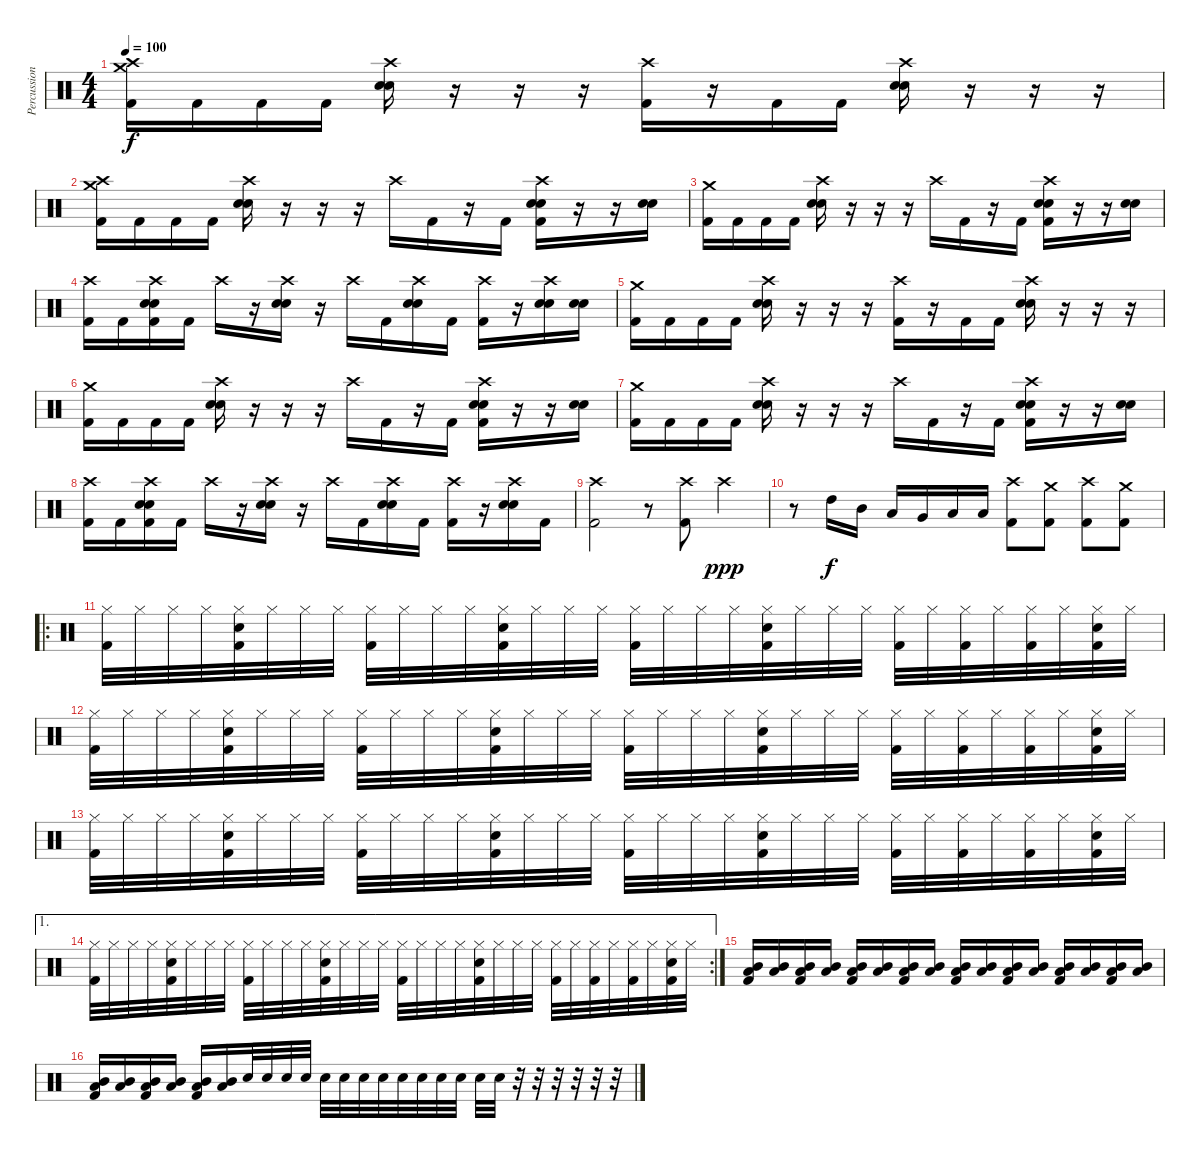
\track ("Percussion" "Percussion") {instrument percussion}
\staff {score}
\articulation defaults
\ts (4 4)
\tempo 100
\clef neutral
\ks c
("Crash medium (hit)" "Crash high (hit)" "Kick (hit) 2").16{dy f} "Kick (hit) 2".16 "Kick (hit) 2".16 "Kick (hit) 2".16 ("Crash high (hit)" "Electric Snare (hit)" "Snare (hit) 2").16 r.16 r.16 r.16 ("Crash high (hit)" "Kick (hit) 2").16 r.16 "Kick (hit) 2".16 "Kick (hit) 2".16 ("Crash high (hit)" "Electric Snare (hit)" "Snare (hit) 2").16 r.16 r.16 r.16 |
("Crash medium (hit)" "Crash high (hit)" "Kick (hit) 2").16 "Kick (hit) 2".16 "Kick (hit) 2".16 "Kick (hit) 2".16 ("Crash high (hit)" "Electric Snare (hit)" "Snare (hit) 2").16 r.16 r.16 r.16 "Crash high (hit)".16 "Kick (hit) 2".16 r.16 "Kick (hit) 2".16 ("Crash high (hit)" "Electric Snare (hit)" "Snare (hit) 2" "Kick (hit) 2").16 r.16 r.16 ("Electric Snare (hit)" "Snare (hit) 2").16 |
("Crash medium (hit)" "Kick (hit) 2").16 "Kick (hit) 2".16 "Kick (hit) 2".16 "Kick (hit) 2".16 ("Crash high (hit)" "Electric Snare (hit)" "Snare (hit) 2").16 r.16 r.16 r.16 "Crash high (hit)".16 "Kick (hit) 2".16 r.16 "Kick (hit) 2".16 ("Crash high (hit)" "Electric Snare (hit)" "Snare (hit) 2" "Kick (hit) 2").16 r.16 r.16 ("Electric Snare (hit)" "Snare (hit) 2").16 |
("Crash high (hit)" "Kick (hit) 2").16 "Kick (hit) 2".16 ("Crash high (hit)" "Electric Snare (hit)" "Snare (hit) 2" "Kick (hit) 2").16 "Kick (hit) 2".16 "Crash high (hit)".16 r.16 ("Crash high (hit)" "Electric Snare (hit)" "Snare (hit) 2").16 r.16 "Crash high (hit)".16 "Kick (hit) 2".16 ("Crash high (hit)" "Electric Snare (hit)" "Snare (hit) 2").16 "Kick (hit) 2".16 ("Crash high (hit)" "Kick (hit) 2").16 r.16 ("Crash high (hit)" "Electric Snare (hit)" "Snare (hit) 2").16 ("Electric Snare (hit)" "Snare (hit) 2").16 |
("Crash medium (hit)" "Kick (hit) 2").16 "Kick (hit) 2".16 "Kick (hit) 2".16 "Kick (hit) 2".16 ("Crash high (hit)" "Electric Snare (hit)" "Snare (hit) 2").16 r.16 r.16 r.16 ("Crash high (hit)" "Kick (hit) 2").16 r.16 "Kick (hit) 2".16 "Kick (hit) 2".16 ("Crash high (hit)" "Electric Snare (hit)" "Snare (hit) 2").16 r.16 r.16 r.16 |
("Crash medium (hit)" "Kick (hit) 2").16 "Kick (hit) 2".16 "Kick (hit) 2".16 "Kick (hit) 2".16 ("Crash high (hit)" "Electric Snare (hit)" "Snare (hit) 2").16 r.16 r.16 r.16 "Crash high (hit)".16 "Kick (hit) 2".16 r.16 "Kick (hit) 2".16 ("Crash high (hit)" "Electric Snare (hit)" "Snare (hit) 2" "Kick (hit) 2").16 r.16 r.16 ("Electric Snare (hit)" "Snare (hit) 2").16 |
("Crash medium (hit)" "Kick (hit) 2").16 "Kick (hit) 2".16 "Kick (hit) 2".16 "Kick (hit) 2".16 ("Crash high (hit)" "Electric Snare (hit)" "Snare (hit) 2").16 r.16 r.16 r.16 "Crash high (hit)".16 "Kick (hit) 2".16 r.16 "Kick (hit) 2".16 ("Crash high (hit)" "Electric Snare (hit)" "Snare (hit) 2" "Kick (hit) 2").16 r.16 r.16 ("Electric Snare (hit)" "Snare (hit) 2").16 |
("Crash high (hit)" "Kick (hit) 2").16 "Kick (hit) 2".16 ("Crash high (hit)" "Electric Snare (hit)" "Snare (hit) 2" "Kick (hit) 2").16 "Kick (hit) 2".16 "Crash high (hit)".16 r.16 ("Crash high (hit)" "Electric Snare (hit)" "Snare (hit) 2").16 r.16 "Crash high (hit)".16 "Kick (hit) 2".16 ("Crash high (hit)" "Electric Snare (hit)" "Snare (hit) 2").16 "Kick (hit) 2".16 ("Crash high (hit)" "Kick (hit) 2").16 r.16 ("Crash high (hit)" "Electric Snare (hit)" "Snare (hit) 2").16 "Kick (hit) 2".16 |
("Crash high (hit)" "Kick (hit) 2").2 r.8 ("Crash high (hit)" "Kick (hit) 2").8 "Crash high (hit)".4{dy ppp} |
r.8 "High Tom (hit)".16{dy f} "Mid Tom (hit)".16 "Low Tom (hit)".16 "Very Low Tom (hit)".16 "Low Floor Tom (hit)".16 "Low Floor Tom (hit)".16 ("Crash high (hit)" "Kick (hit) 2").8 ("Crash medium (hit)" "Kick (hit) 2").8 ("Crash high (hit)" "Kick (hit) 2").8 ("Crash medium (hit)" "Kick (hit) 2").8 |
\ro
("Hi-Hat (closed)" "Kick (hit) 2").32 "Hi-Hat (closed)".32 "Hi-Hat (closed)".32 "Hi-Hat (closed)".32 ("Hi-Hat (closed)" "Snare (hit) 2" "Kick (hit) 2").32 "Hi-Hat (closed)".32 "Hi-Hat (closed)".32 "Hi-Hat (closed)".32 ("Hi-Hat (closed)" "Kick (hit) 2").32 "Hi-Hat (closed)".32 "Hi-Hat (closed)".32 "Hi-Hat (closed)".32 ("Hi-Hat (closed)" "Snare (hit) 2" "Kick (hit) 2").32 "Hi-Hat (closed)".32 "Hi-Hat (closed)".32 "Hi-Hat (closed)".32 ("Hi-Hat (closed)" "Kick (hit) 2").32 "Hi-Hat (closed)".32 "Hi-Hat (closed)".32 "Hi-Hat (closed)".32 ("Hi-Hat (closed)" "Snare (hit) 2" "Kick (hit) 2").32 "Hi-Hat (closed)".32 "Hi-Hat (closed)".32 "Hi-Hat (closed)".32 ("Hi-Hat (closed)" "Kick (hit) 2").32 "Hi-Hat (closed)".32 ("Hi-Hat (closed)" "Kick (hit) 2").32 "Hi-Hat (closed)".32 ("Hi-Hat (closed)" "Kick (hit) 2").32 "Hi-Hat (closed)".32 ("Hi-Hat (closed)" "Snare (hit) 2" "Kick (hit) 2").32 "Hi-Hat (closed)".32 |
("Hi-Hat (closed)" "Kick (hit) 2").32 "Hi-Hat (closed)".32 "Hi-Hat (closed)".32 "Hi-Hat (closed)".32 ("Hi-Hat (closed)" "Snare (hit) 2" "Kick (hit) 2").32 "Hi-Hat (closed)".32 "Hi-Hat (closed)".32 "Hi-Hat (closed)".32 ("Hi-Hat (closed)" "Kick (hit) 2").32 "Hi-Hat (closed)".32 "Hi-Hat (closed)".32 "Hi-Hat (closed)".32 ("Hi-Hat (closed)" "Snare (hit) 2" "Kick (hit) 2").32 "Hi-Hat (closed)".32 "Hi-Hat (closed)".32 "Hi-Hat (closed)".32 ("Hi-Hat (closed)" "Kick (hit) 2").32 "Hi-Hat (closed)".32 "Hi-Hat (closed)".32 "Hi-Hat (closed)".32 ("Hi-Hat (closed)" "Snare (hit) 2" "Kick (hit) 2").32 "Hi-Hat (closed)".32 "Hi-Hat (closed)".32 "Hi-Hat (closed)".32 ("Hi-Hat (closed)" "Kick (hit) 2").32 "Hi-Hat (closed)".32 ("Hi-Hat (closed)" "Kick (hit) 2").32 "Hi-Hat (closed)".32 ("Hi-Hat (closed)" "Kick (hit) 2").32 "Hi-Hat (closed)".32 ("Hi-Hat (closed)" "Snare (hit) 2" "Kick (hit) 2").32 "Hi-Hat (closed)".32 |
("Hi-Hat (closed)" "Kick (hit) 2").32 "Hi-Hat (closed)".32 "Hi-Hat (closed)".32 "Hi-Hat (closed)".32 ("Hi-Hat (closed)" "Snare (hit) 2" "Kick (hit) 2").32 "Hi-Hat (closed)".32 "Hi-Hat (closed)".32 "Hi-Hat (closed)".32 ("Hi-Hat (closed)" "Kick (hit) 2").32 "Hi-Hat (closed)".32 "Hi-Hat (closed)".32 "Hi-Hat (closed)".32 ("Hi-Hat (closed)" "Snare (hit) 2" "Kick (hit) 2").32 "Hi-Hat (closed)".32 "Hi-Hat (closed)".32 "Hi-Hat (closed)".32 ("Hi-Hat (closed)" "Kick (hit) 2").32 "Hi-Hat (closed)".32 "Hi-Hat (closed)".32 "Hi-Hat (closed)".32 ("Hi-Hat (closed)" "Snare (hit) 2" "Kick (hit) 2").32 "Hi-Hat (closed)".32 "Hi-Hat (closed)".32 "Hi-Hat (closed)".32 ("Hi-Hat (closed)" "Kick (hit) 2").32 "Hi-Hat (closed)".32 ("Hi-Hat (closed)" "Kick (hit) 2").32 "Hi-Hat (closed)".32 ("Hi-Hat (closed)" "Kick (hit) 2").32 "Hi-Hat (closed)".32 ("Hi-Hat (closed)" "Snare (hit) 2" "Kick (hit) 2").32 "Hi-Hat (closed)".32 |
\ae 1
\rc 2
("Hi-Hat (closed)" "Kick (hit) 2").32 "Hi-Hat (closed)".32 "Hi-Hat (closed)".32 "Hi-Hat (closed)".32 ("Hi-Hat (closed)" "Snare (hit) 2" "Kick (hit) 2").32 "Hi-Hat (closed)".32 "Hi-Hat (closed)".32 "Hi-Hat (closed)".32 ("Hi-Hat (closed)" "Kick (hit) 2").32 "Hi-Hat (closed)".32 "Hi-Hat (closed)".32 "Hi-Hat (closed)".32 ("Hi-Hat (closed)" "Snare (hit) 2" "Kick (hit) 2").32 "Hi-Hat (closed)".32 "Hi-Hat (closed)".32 "Hi-Hat (closed)".32 ("Hi-Hat (closed)" "Kick (hit) 2").32 "Hi-Hat (closed)".32 "Hi-Hat (closed)".32 "Hi-Hat (closed)".32 ("Hi-Hat (closed)" "Snare (hit) 2" "Kick (hit) 2").32 "Hi-Hat (closed)".32 "Hi-Hat (closed)".32 "Hi-Hat (closed)".32 ("Hi-Hat (closed)" "Kick (hit) 2").32 "Hi-Hat (closed)".32 ("Hi-Hat (closed)" "Kick (hit) 2").32 "Hi-Hat (closed)".32 ("Hi-Hat (closed)" "Kick (hit) 2").32 "Hi-Hat (closed)".32 ("Hi-Hat (closed)" "Snare (hit) 2" "Kick (hit) 2").32 "Hi-Hat (closed)".32 |
("Low Floor Tom (hit)" "Mid Tom (hit)" "Kick (hit) 2").16 ("Low Floor Tom (hit)" "Mid Tom (hit)").16 ("Low Floor Tom (hit)" "Mid Tom (hit)" "Kick (hit) 2").16 ("Low Floor Tom (hit)" "Mid Tom (hit)").16 ("Low Floor Tom (hit)" "Mid Tom (hit)" "Kick (hit) 2").16 ("Low Floor Tom (hit)" "Mid Tom (hit)").16 ("Low Floor Tom (hit)" "Mid Tom (hit)" "Kick (hit) 2").16 ("Low Floor Tom (hit)" "Mid Tom (hit)").16 ("Low Floor Tom (hit)" "Mid Tom (hit)" "Kick (hit) 2").16 ("Low Floor Tom (hit)" "Mid Tom (hit)").16 ("Low Floor Tom (hit)" "Mid Tom (hit)" "Kick (hit) 2").16 ("Low Floor Tom (hit)" "Mid Tom (hit)").16 ("Low Floor Tom (hit)" "Mid Tom (hit)" "Kick (hit) 2").16 ("Low Floor Tom (hit)" "Mid Tom (hit)").16 ("Low Floor Tom (hit)" "Mid Tom (hit)" "Kick (hit) 2").16 ("Low Floor Tom (hit)" "Mid Tom (hit)").16 |
("Low Floor Tom (hit)" "Mid Tom (hit)" "Kick (hit) 2").16 ("Low Floor Tom (hit)" "Mid Tom (hit)").16 ("Low Floor Tom (hit)" "Mid Tom (hit)" "Kick (hit) 2").16 ("Low Floor Tom (hit)" "Mid Tom (hit)").16 ("Low Floor Tom (hit)" "Mid Tom (hit)" "Kick (hit) 2").16 ("Low Floor Tom (hit)" "Mid Tom (hit)").16 "Snare (hit) 2".32 "Snare (hit) 2".32 "Snare (hit) 2".32 "Snare (hit) 2".32 "Snare (hit) 2".32 "Snare (hit) 2".32 "Snare (hit) 2".32 "Snare (hit) 2".32 "Snare (hit) 2".32 "Snare (hit) 2".32 "Snare (hit) 2".32 "Snare (hit) 2".32 "Snare (hit) 2".32 "Snare (hit) 2".32 r.32 r.32 r.32 r.32 r.32 r.32
